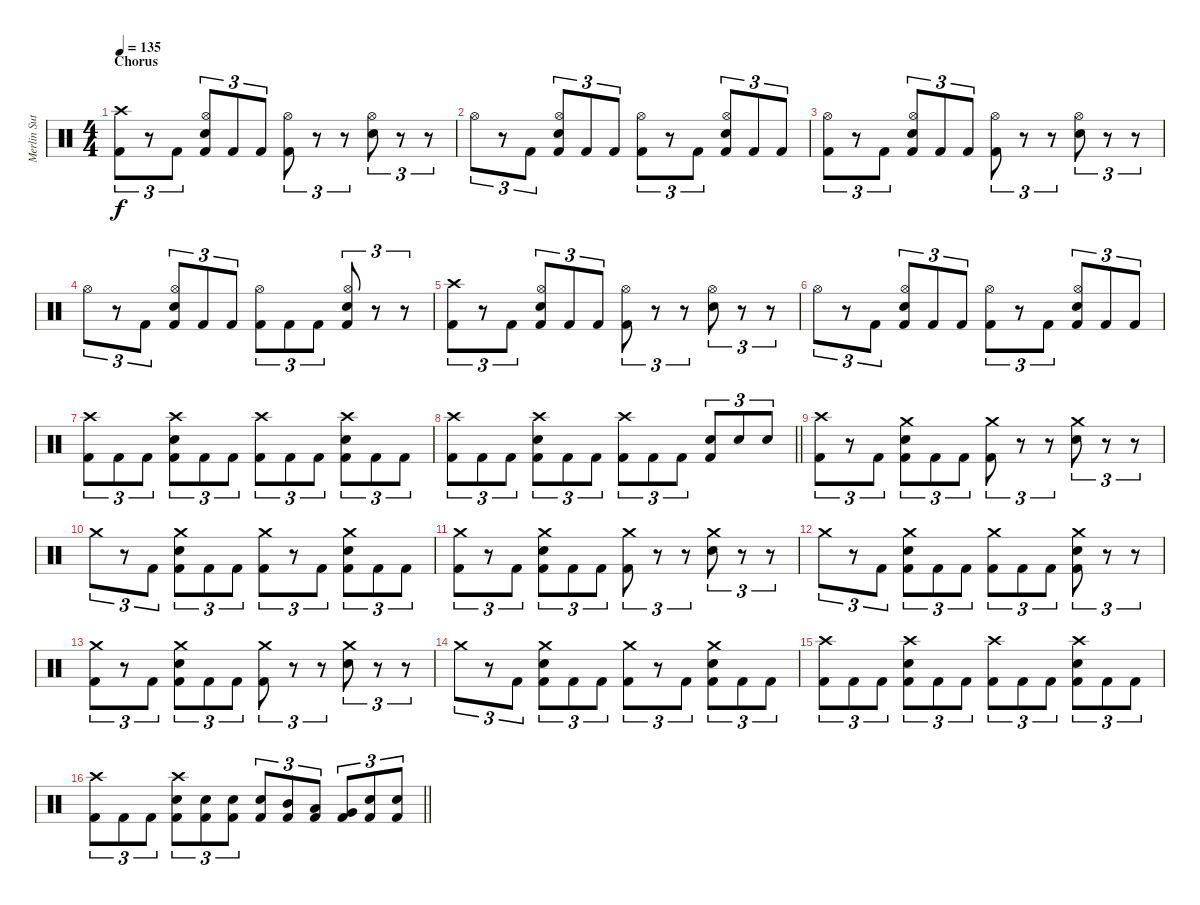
\track ("Merlin Sutter" "Merlin Sut") {instrument percussion}
\staff {score}
\articulation defaults
\ts (4 4)
\section ("" "Chorus")
\tempo 135
\clef neutral
\ks c
("Crash high (hit)" "Kick (hit) 2").8{tu (3 2) dy f} r.8{tu (3 2)} "Kick (hit) 2".8{tu (3 2)} ("Hi-Hat (open)" "Snare (hit) 2" "Kick (hit) 2").8{tu (3 2)} "Kick (hit) 2".8{tu (3 2)} "Kick (hit) 2".8{tu (3 2)} ("Hi-Hat (open)" "Kick (hit) 2").8{tu (3 2)} r.8{tu (3 2)} r.8{tu (3 2)} ("Hi-Hat (open)" "Snare (hit) 2").8{tu (3 2)} r.8{tu (3 2)} r.8{tu (3 2)} |
"Hi-Hat (open)".8{tu (3 2)} r.8{tu (3 2)} "Kick (hit) 2".8{tu (3 2)} ("Hi-Hat (open)" "Snare (hit) 2" "Kick (hit) 2").8{tu (3 2)} "Kick (hit) 2".8{tu (3 2)} "Kick (hit) 2".8{tu (3 2)} ("Hi-Hat (open)" "Kick (hit) 2").8{tu (3 2)} r.8{tu (3 2)} "Kick (hit) 2".8{tu (3 2)} ("Hi-Hat (open)" "Snare (hit) 2" "Kick (hit) 2").8{tu (3 2)} "Kick (hit) 2".8{tu (3 2)} "Kick (hit) 2".8{tu (3 2)} |
("Hi-Hat (open)" "Kick (hit) 2").8{tu (3 2)} r.8{tu (3 2)} "Kick (hit) 2".8{tu (3 2)} ("Hi-Hat (open)" "Snare (hit) 2" "Kick (hit) 2").8{tu (3 2)} "Kick (hit) 2".8{tu (3 2)} "Kick (hit) 2".8{tu (3 2)} ("Hi-Hat (open)" "Kick (hit) 2").8{tu (3 2)} r.8{tu (3 2)} r.8{tu (3 2)} ("Hi-Hat (open)" "Snare (hit) 2").8{tu (3 2)} r.8{tu (3 2)} r.8{tu (3 2)} |
"Hi-Hat (open)".8{tu (3 2)} r.8{tu (3 2)} "Kick (hit) 2".8{tu (3 2)} ("Hi-Hat (open)" "Snare (hit) 2" "Kick (hit) 2").8{tu (3 2)} "Kick (hit) 2".8{tu (3 2)} "Kick (hit) 2".8{tu (3 2)} ("Hi-Hat (open)" "Kick (hit) 2").8{tu (3 2)} "Kick (hit) 2".8{tu (3 2)} "Kick (hit) 2".8{tu (3 2)} ("Hi-Hat (open)" "Snare (hit) 2" "Kick (hit) 2").8{tu (3 2)} r.8{tu (3 2)} r.8{tu (3 2)} |
("Crash high (hit)" "Kick (hit) 2").8{tu (3 2)} r.8{tu (3 2)} "Kick (hit) 2".8{tu (3 2)} ("Hi-Hat (open)" "Snare (hit) 2" "Kick (hit) 2").8{tu (3 2)} "Kick (hit) 2".8{tu (3 2)} "Kick (hit) 2".8{tu (3 2)} ("Hi-Hat (open)" "Kick (hit) 2").8{tu (3 2)} r.8{tu (3 2)} r.8{tu (3 2)} ("Hi-Hat (open)" "Snare (hit) 2").8{tu (3 2)} r.8{tu (3 2)} r.8{tu (3 2)} |
"Hi-Hat (open)".8{tu (3 2)} r.8{tu (3 2)} "Kick (hit) 2".8{tu (3 2)} ("Hi-Hat (open)" "Snare (hit) 2" "Kick (hit) 2").8{tu (3 2)} "Kick (hit) 2".8{tu (3 2)} "Kick (hit) 2".8{tu (3 2)} ("Hi-Hat (open)" "Kick (hit) 2").8{tu (3 2)} r.8{tu (3 2)} "Kick (hit) 2".8{tu (3 2)} ("Hi-Hat (open)" "Snare (hit) 2" "Kick (hit) 2").8{tu (3 2)} "Kick (hit) 2".8{tu (3 2)} "Kick (hit) 2".8{tu (3 2)} |
("Crash high (hit)" "Kick (hit) 2").8{tu (3 2)} "Kick (hit) 2".8{tu (3 2)} "Kick (hit) 2".8{tu (3 2)} ("Crash high (hit)" "Snare (hit) 2" "Kick (hit) 2").8{tu (3 2)} "Kick (hit) 2".8{tu (3 2)} "Kick (hit) 2".8{tu (3 2)} ("Crash high (hit)" "Kick (hit) 2").8{tu (3 2)} "Kick (hit) 2".8{tu (3 2)} "Kick (hit) 2".8{tu (3 2)} ("Crash high (hit)" "Snare (hit) 2" "Kick (hit) 2").8{tu (3 2)} "Kick (hit) 2".8{tu (3 2)} "Kick (hit) 2".8{tu (3 2)} |
\barLineRight lightlight
("Crash high (hit)" "Kick (hit) 2").8{tu (3 2)} "Kick (hit) 2".8{tu (3 2)} "Kick (hit) 2".8{tu (3 2)} ("Crash high (hit)" "Snare (hit) 2" "Kick (hit) 2").8{tu (3 2)} "Kick (hit) 2".8{tu (3 2)} "Kick (hit) 2".8{tu (3 2)} ("Crash high (hit)" "Kick (hit) 2").8{tu (3 2)} "Kick (hit) 2".8{tu (3 2)} "Kick (hit) 2".8{tu (3 2)} ("Snare (hit) 2" "Kick (hit) 2").8{tu (3 2)} "Snare (hit) 2".8{tu (3 2)} "Snare (hit) 2".8{tu (3 2)} |
("Crash high (hit)" "Kick (hit) 2").8{tu (3 2)} r.8{tu (3 2)} "Kick (hit) 2".8{tu (3 2)} ("Crash medium (hit)" "Snare (hit) 2" "Kick (hit) 2").8{tu (3 2)} "Kick (hit) 2".8{tu (3 2)} "Kick (hit) 2".8{tu (3 2)} ("Crash medium (hit)" "Kick (hit) 2").8{tu (3 2)} r.8{tu (3 2)} r.8{tu (3 2)} ("Crash medium (hit)" "Snare (hit) 2").8{tu (3 2)} r.8{tu (3 2)} r.8{tu (3 2)} |
"Crash medium (hit)".8{tu (3 2)} r.8{tu (3 2)} "Kick (hit) 2".8{tu (3 2)} ("Crash medium (hit)" "Snare (hit) 2" "Kick (hit) 2").8{tu (3 2)} "Kick (hit) 2".8{tu (3 2)} "Kick (hit) 2".8{tu (3 2)} ("Crash medium (hit)" "Kick (hit) 2").8{tu (3 2)} r.8{tu (3 2)} "Kick (hit) 2".8{tu (3 2)} ("Crash medium (hit)" "Snare (hit) 2" "Kick (hit) 2").8{tu (3 2)} "Kick (hit) 2".8{tu (3 2)} "Kick (hit) 2".8{tu (3 2)} |
("Crash medium (hit)" "Kick (hit) 2").8{tu (3 2)} r.8{tu (3 2)} "Kick (hit) 2".8{tu (3 2)} ("Crash medium (hit)" "Snare (hit) 2" "Kick (hit) 2").8{tu (3 2)} "Kick (hit) 2".8{tu (3 2)} "Kick (hit) 2".8{tu (3 2)} ("Crash medium (hit)" "Kick (hit) 2").8{tu (3 2)} r.8{tu (3 2)} r.8{tu (3 2)} ("Crash medium (hit)" "Snare (hit) 2").8{tu (3 2)} r.8{tu (3 2)} r.8{tu (3 2)} |
"Crash medium (hit)".8{tu (3 2)} r.8{tu (3 2)} "Kick (hit) 2".8{tu (3 2)} ("Crash medium (hit)" "Snare (hit) 2" "Kick (hit) 2").8{tu (3 2)} "Kick (hit) 2".8{tu (3 2)} "Kick (hit) 2".8{tu (3 2)} ("Crash medium (hit)" "Kick (hit) 2").8{tu (3 2)} "Kick (hit) 2".8{tu (3 2)} "Kick (hit) 2".8{tu (3 2)} ("Crash medium (hit)" "Snare (hit) 2" "Kick (hit) 2").8{tu (3 2)} r.8{tu (3 2)} r.8{tu (3 2)} |
("Crash medium (hit)" "Kick (hit) 2").8{tu (3 2)} r.8{tu (3 2)} "Kick (hit) 2".8{tu (3 2)} ("Crash medium (hit)" "Snare (hit) 2" "Kick (hit) 2").8{tu (3 2)} "Kick (hit) 2".8{tu (3 2)} "Kick (hit) 2".8{tu (3 2)} ("Crash medium (hit)" "Kick (hit) 2").8{tu (3 2)} r.8{tu (3 2)} r.8{tu (3 2)} ("Crash medium (hit)" "Snare (hit) 2").8{tu (3 2)} r.8{tu (3 2)} r.8{tu (3 2)} |
"Crash medium (hit)".8{tu (3 2)} r.8{tu (3 2)} "Kick (hit) 2".8{tu (3 2)} ("Crash medium (hit)" "Snare (hit) 2" "Kick (hit) 2").8{tu (3 2)} "Kick (hit) 2".8{tu (3 2)} "Kick (hit) 2".8{tu (3 2)} ("Crash medium (hit)" "Kick (hit) 2").8{tu (3 2)} r.8{tu (3 2)} "Kick (hit) 2".8{tu (3 2)} ("Crash medium (hit)" "Snare (hit) 2" "Kick (hit) 2").8{tu (3 2)} "Kick (hit) 2".8{tu (3 2)} "Kick (hit) 2".8{tu (3 2)} |
("Crash high (hit)" "Kick (hit) 2").8{tu (3 2)} "Kick (hit) 2".8{tu (3 2)} "Kick (hit) 2".8{tu (3 2)} ("Crash high (hit)" "Snare (hit) 2" "Kick (hit) 2").8{tu (3 2)} "Kick (hit) 2".8{tu (3 2)} "Kick (hit) 2".8{tu (3 2)} ("Crash high (hit)" "Kick (hit) 2").8{tu (3 2)} "Kick (hit) 2".8{tu (3 2)} "Kick (hit) 2".8{tu (3 2)} ("Crash high (hit)" "Snare (hit) 2" "Kick (hit) 2").8{tu (3 2)} "Kick (hit) 2".8{tu (3 2)} "Kick (hit) 2".8{tu (3 2)} |
\barLineRight lightlight
("Crash high (hit)" "Kick (hit) 2").8{tu (3 2)} "Kick (hit) 2".8{tu (3 2)} "Kick (hit) 2".8{tu (3 2)} ("Crash high (hit)" "Snare (hit) 2" "Kick (hit) 2").8{tu (3 2)} ("Snare (hit) 2" "Kick (hit) 2").8{tu (3 2)} ("Snare (hit) 2" "Kick (hit) 2").8{tu (3 2)} ("Snare (hit) 2" "Kick (hit) 2").8{tu (3 2)} ("Mid Tom (hit)" "Kick (hit) 2").8{tu (3 2)} ("Low Tom (hit)" "Kick (hit) 2").8{tu (3 2)} ("Very Low Tom (hit)" "Kick (hit) 2").8{tu (3 2)} ("Snare (hit) 2" "Kick (hit) 2").8{tu (3 2)} ("Snare (hit) 2" "Kick (hit) 2").8{tu (3 2)}
